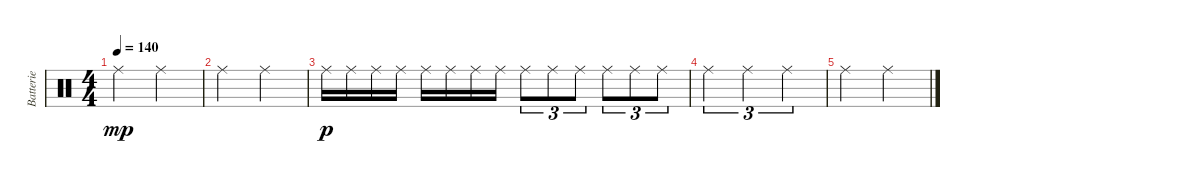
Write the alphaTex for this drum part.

\track ("Batterie" "Batterie") {instrument percussion}
\staff {score}
\articulation defaults
\ts (4 4)
\tempo 140
\clef neutral
\ks c "Ride (middle)".2{dy mp} "Ride (middle)".2
|
"Ride (middle)".2 "Ride (middle)".2 |
"Ride (middle)".16{dy p} "Ride (middle)".16 "Ride (middle)".16 "Ride (middle)".16 "Ride (middle)".16 "Ride (middle)".16 "Ride (middle)".16 "Ride (middle)".16 "Ride (middle)".8{tu (3 2)} "Ride (middle)".8{tu (3 2)} "Ride (middle)".8{tu (3 2)} "Ride (middle)".8{tu (3 2)} "Ride (middle)".8{tu (3 2)} "Ride (middle)".8{tu (3 2)} |
"Ride (middle)".2{tu (3 2)} "Ride (middle)".2{tu (3 2)} "Ride (middle)".2{tu (3 2)} |
"Ride (middle)".2 "Ride (middle)".2
